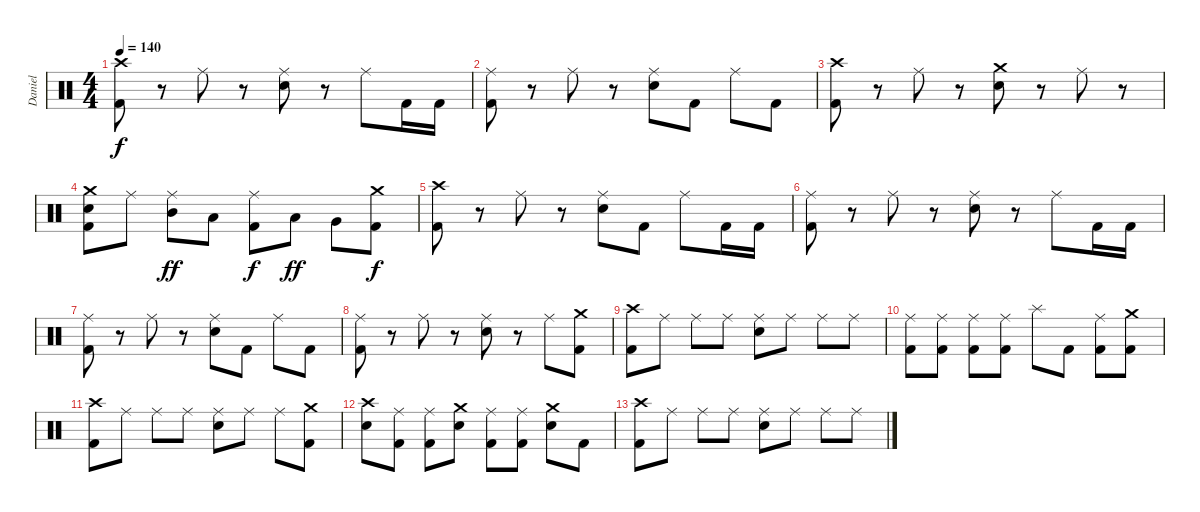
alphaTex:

\track ("Daniel" "Daniel") {instrument percussion}
\staff {score}
\articulation defaults
\ts (4 4)
\tempo 140
\clef neutral
\ks c
("Crash high (hit)" "Kick (hit) 2").8{dy f volume 8} r.8 "Ride (middle)".8 r.8 ("Ride (middle)" "Snare (hit) 2").8 r.8 "Ride (middle)".8 "Kick (hit) 2".16 "Kick (hit) 2".16 |
("Ride (middle)" "Kick (hit) 2").8 r.8 "Ride (middle)".8 r.8 ("Ride (middle)" "Snare (hit) 2").8 "Kick (hit) 2".8 "Ride (middle)".8 "Kick (hit) 2".8 |
("Crash high (hit)" "Kick (hit) 2").8 r.8 "Ride (middle)".8 r.8 ("Crash medium (hit)" "Snare (hit) 2").8 r.8 "Ride (middle)".8 r.8 |
("Crash medium (hit)" "Snare (hit) 2" "Kick (hit) 2").8 "Ride (middle)".8 ("Ride (middle)" "Mid Tom (hit)").8{dy ff} "Low Tom (hit)".8 ("Ride (middle)" "Kick (hit) 2").8{dy f} "Low Tom (hit)".8{dy ff} "Very Low Tom (hit)".8 ("Crash medium (hit)" "Kick (hit) 2").8{dy f} |
("Crash high (hit)" "Kick (hit) 2").8{volume 4} r.8 "Ride (middle)".8 r.8 ("Ride (middle)" "Snare (hit) 2").8 "Kick (hit) 2".8 "Ride (middle)".8 "Kick (hit) 2".16 "Kick (hit) 2".16 |
("Ride (middle)" "Kick (hit) 2").8 r.8 "Ride (middle)".8 r.8 ("Ride (middle)" "Snare (hit) 2").8 r.8 "Ride (middle)".8 "Kick (hit) 2".16 "Kick (hit) 2".16 |
("Ride (middle)" "Kick (hit) 2").8 r.8 "Ride (middle)".8 r.8 ("Ride (middle)" "Snare (hit) 2").8 "Kick (hit) 2".8 "Ride (middle)".8 "Kick (hit) 2".8 |
("Ride (middle)" "Kick (hit) 2").8 r.8 "Ride (middle)".8 r.8 ("Ride (middle)" "Snare (hit) 2").8 r.8 "Ride (middle)".8 ("Crash medium (hit)" "Kick (hit) 2").8 |
("Crash high (hit)" "Kick (hit) 2").8{volume 1} "Ride (middle)".8 "Ride (middle)".8 "Ride (middle)".8 ("Ride (middle)" "Snare (hit) 2").8 "Ride (middle)".8 "Ride (middle)".8 "Ride (middle)".8 |
("Ride (middle)" "Kick (hit) 2").8 ("Ride (middle)" "Kick (hit) 2").8 ("Ride (middle)" "Kick (hit) 2").8 ("Ride (middle)" "Kick (hit) 2").8 "Splash (hit)".8 "Kick (hit) 2".8 ("Ride (middle)" "Kick (hit) 2").8 ("Crash medium (hit)" "Kick (hit) 2").8 |
("Crash high (hit)" "Kick (hit) 2").8 "Ride (middle)".8 "Ride (middle)".8 "Ride (middle)".8 ("Ride (middle)" "Snare (hit) 2").8 "Ride (middle)".8 "Ride (middle)".8 ("Crash medium (hit)" "Kick (hit) 2").8 |
("Crash high (hit)" "Snare (hit) 2").8 ("Ride (middle)" "Kick (hit) 2").8 ("Ride (middle)" "Kick (hit) 2").8 ("Crash medium (hit)" "Snare (hit) 2").8 ("Ride (middle)" "Kick (hit) 2").8 ("Ride (middle)" "Kick (hit) 2").8 ("Crash medium (hit)" "Snare (hit) 2").8 "Kick (hit) 2".8 |
("Crash high (hit)" "Kick (hit) 2").8{volume 0} "Ride (middle)".8 "Ride (middle)".8 "Ride (middle)".8 ("Ride (middle)" "Snare (hit) 2").8 "Ride (middle)".8 "Ride (middle)".8 "Ride (middle)".8
